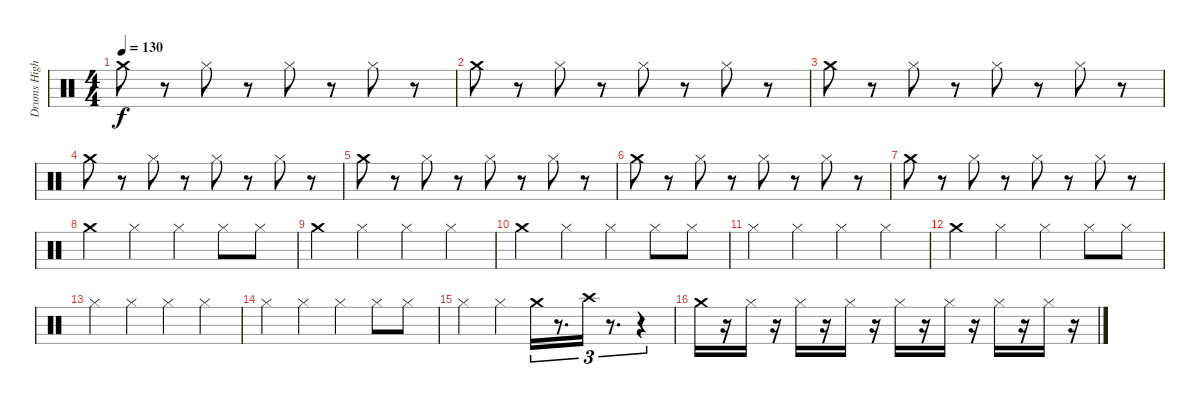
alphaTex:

\track ("Drums High" "Drums High") {instrument percussion}
\staff {score}
\articulation defaults
\ts (4 4)
\tempo 130
\clef neutral
\ks c "Crash medium (hit)".8{dy f}
r.8 "Hi-Hat (closed)".8 r.8 "Hi-Hat (closed)".8 r.8 "Hi-Hat (closed)".8 r.8 |
"Crash medium (hit)".8 r.8 "Hi-Hat (closed)".8 r.8 "Hi-Hat (closed)".8 r.8 "Hi-Hat (closed)".8 r.8 |
"Crash medium (hit)".8 r.8 "Hi-Hat (closed)".8 r.8 "Hi-Hat (closed)".8 r.8 "Hi-Hat (closed)".8 r.8 |
"Crash medium (hit)".8 r.8 "Hi-Hat (closed)".8 r.8 "Hi-Hat (closed)".8 r.8 "Hi-Hat (closed)".8 r.8 |
"Crash medium (hit)".8 r.8 "Hi-Hat (closed)".8 r.8 "Hi-Hat (closed)".8 r.8 "Hi-Hat (closed)".8 r.8 |
"Crash medium (hit)".8 r.8 "Hi-Hat (closed)".8 r.8 "Hi-Hat (closed)".8 r.8 "Hi-Hat (closed)".8 r.8 |
"Crash medium (hit)".8 r.8 "Hi-Hat (closed)".8 r.8 "Hi-Hat (closed)".8 r.8 "Hi-Hat (closed)".8 r.8 |
"Crash medium (hit)".4{volume 8} "Hi-Hat (closed)".4 "Hi-Hat (closed)".4 "Hi-Hat (closed)".8 "Hi-Hat (closed)".8 |
"Crash medium (hit)".4 "Hi-Hat (closed)".4 "Hi-Hat (closed)".4 "Hi-Hat (closed)".4 |
"Crash medium (hit)".4 "Hi-Hat (closed)".4 "Hi-Hat (closed)".4 "Hi-Hat (closed)".8 "Hi-Hat (closed)".8 |
"Hi-Hat (closed)".4 "Hi-Hat (closed)".4 "Hi-Hat (closed)".4 "Hi-Hat (closed)".4 |
"Crash medium (hit)".4 "Hi-Hat (closed)".4 "Hi-Hat (closed)".4 "Hi-Hat (closed)".8 "Hi-Hat (closed)".8 |
"Hi-Hat (closed)".4 "Hi-Hat (closed)".4 "Hi-Hat (closed)".4 "Hi-Hat (closed)".4 |
"Hi-Hat (closed)".4 "Hi-Hat (closed)".4 "Hi-Hat (closed)".4 "Hi-Hat (closed)".8 "Hi-Hat (closed)".8 |
"Hi-Hat (closed)".4 "Hi-Hat (closed)".4 "Crash medium (hit)".16{tu (3 2) volume 14} r.8{d tu (3 2)} "Crash high (hit)".16{tu (3 2)} r.8{d tu (3 2)} r.4{tu (3 2)} |
"Crash medium (hit)".16 r.16 "Hi-Hat (closed)".16 r.16 "Hi-Hat (closed)".16 r.16 "Hi-Hat (closed)".16 r.16 "Hi-Hat (closed)".16 r.16 "Hi-Hat (closed)".16 r.16 "Hi-Hat (closed)".16 r.16 "Hi-Hat (closed)".16 r.16
